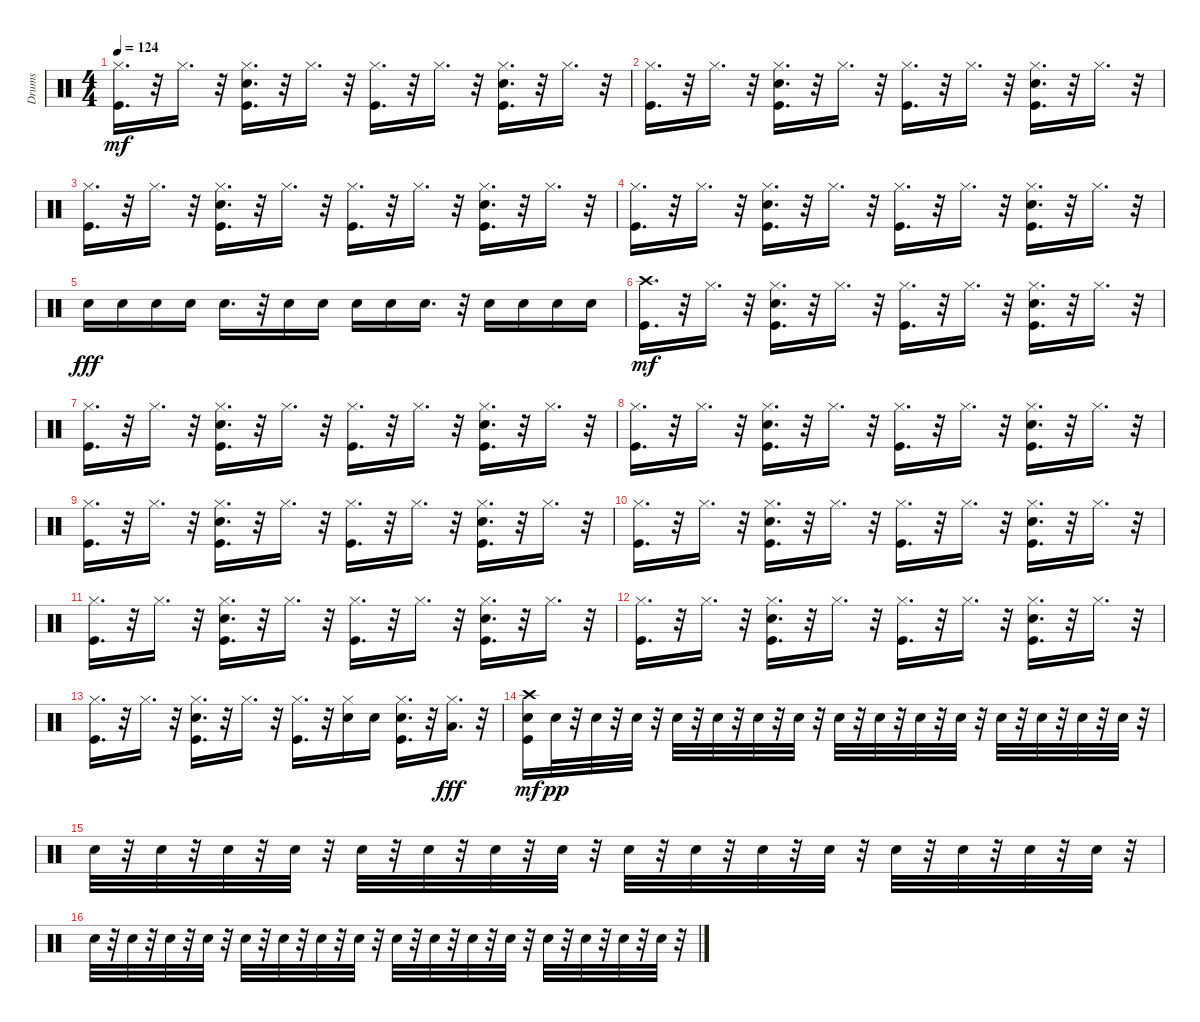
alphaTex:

\track ("Drums" "Drums") {instrument percussion}
\staff {score}
\articulation defaults
\ts (4 4)
\tempo 124
\clef neutral
\ks c
("Kick (hit)" "Hi-Hat (closed)").16{d dy mf} r.32 "Hi-Hat (closed)".16{d} r.32 ("Kick (hit)" "Snare (hit) 2" "Hi-Hat (closed)").16{d} r.32 "Hi-Hat (closed)".16{d} r.32 ("Kick (hit)" "Hi-Hat (closed)").16{d} r.32 "Hi-Hat (closed)".16{d} r.32 ("Kick (hit)" "Snare (hit) 2" "Hi-Hat (closed)").16{d} r.32 "Hi-Hat (closed)".16{d} r.32 |
("Kick (hit)" "Hi-Hat (closed)").16{d} r.32 "Hi-Hat (closed)".16{d} r.32 ("Kick (hit)" "Snare (hit) 2" "Hi-Hat (closed)").16{d} r.32 "Hi-Hat (closed)".16{d} r.32 ("Kick (hit)" "Hi-Hat (closed)").16{d} r.32 "Hi-Hat (closed)".16{d} r.32 ("Kick (hit)" "Snare (hit) 2" "Hi-Hat (closed)").16{d} r.32 "Hi-Hat (closed)".16{d} r.32 |
("Kick (hit)" "Hi-Hat (closed)").16{d} r.32 "Hi-Hat (closed)".16{d} r.32 ("Kick (hit)" "Snare (hit) 2" "Hi-Hat (closed)").16{d} r.32 "Hi-Hat (closed)".16{d} r.32 ("Kick (hit)" "Hi-Hat (closed)").16{d} r.32 "Hi-Hat (closed)".16{d} r.32 ("Kick (hit)" "Snare (hit) 2" "Hi-Hat (closed)").16{d} r.32 "Hi-Hat (closed)".16{d} r.32 |
("Kick (hit)" "Hi-Hat (closed)").16{d} r.32 "Hi-Hat (closed)".16{d} r.32 ("Kick (hit)" "Snare (hit) 2" "Hi-Hat (closed)").16{d} r.32 "Hi-Hat (closed)".16{d} r.32 ("Kick (hit)" "Hi-Hat (closed)").16{d} r.32 "Hi-Hat (closed)".16{d} r.32 ("Kick (hit)" "Snare (hit) 2" "Hi-Hat (closed)").16{d} r.32 "Hi-Hat (closed)".16{d} r.32 |
"Snare (hit) 2".16{dy fff} "Snare (hit) 2".16 "Snare (hit) 2".16 "Snare (hit) 2".16 "Snare (hit) 2".16{d} r.32 "Snare (hit) 2".16 "Snare (hit) 2".16 "Snare (hit) 2".16 "Snare (hit) 2".16 "Snare (hit) 2".16{d} r.32 "Snare (hit) 2".16 "Snare (hit) 2".16 "Snare (hit) 2".16 "Snare (hit) 2".16 |
("Kick (hit)" "Crash high (hit)").16{d dy mf} r.32 "Hi-Hat (closed)".16{d} r.32 ("Kick (hit)" "Snare (hit) 2" "Hi-Hat (closed)").16{d} r.32 "Hi-Hat (closed)".16{d} r.32 ("Kick (hit)" "Hi-Hat (closed)").16{d} r.32 "Hi-Hat (closed)".16{d} r.32 ("Kick (hit)" "Snare (hit) 2" "Hi-Hat (closed)").16{d} r.32 "Hi-Hat (closed)".16{d} r.32 |
("Kick (hit)" "Hi-Hat (closed)").16{d} r.32 "Hi-Hat (closed)".16{d} r.32 ("Kick (hit)" "Snare (hit) 2" "Hi-Hat (closed)").16{d} r.32 "Hi-Hat (closed)".16{d} r.32 ("Kick (hit)" "Hi-Hat (closed)").16{d} r.32 "Hi-Hat (closed)".16{d} r.32 ("Kick (hit)" "Snare (hit) 2" "Hi-Hat (closed)").16{d} r.32 "Hi-Hat (closed)".16{d} r.32 |
("Kick (hit)" "Hi-Hat (closed)").16{d} r.32 "Hi-Hat (closed)".16{d} r.32 ("Kick (hit)" "Snare (hit) 2" "Hi-Hat (closed)").16{d} r.32 "Hi-Hat (closed)".16{d} r.32 ("Kick (hit)" "Hi-Hat (closed)").16{d} r.32 "Hi-Hat (closed)".16{d} r.32 ("Kick (hit)" "Snare (hit) 2" "Hi-Hat (closed)").16{d} r.32 "Hi-Hat (closed)".16{d} r.32 |
("Kick (hit)" "Hi-Hat (closed)").16{d} r.32 "Hi-Hat (closed)".16{d} r.32 ("Kick (hit)" "Snare (hit) 2" "Hi-Hat (closed)").16{d} r.32 "Hi-Hat (closed)".16{d} r.32 ("Kick (hit)" "Hi-Hat (closed)").16{d} r.32 "Hi-Hat (closed)".16{d} r.32 ("Kick (hit)" "Snare (hit) 2" "Hi-Hat (closed)").16{d} r.32 "Hi-Hat (closed)".16{d} r.32 |
("Kick (hit)" "Hi-Hat (closed)").16{d} r.32 "Hi-Hat (closed)".16{d} r.32 ("Kick (hit)" "Snare (hit) 2" "Hi-Hat (closed)").16{d} r.32 "Hi-Hat (closed)".16{d} r.32 ("Kick (hit)" "Hi-Hat (closed)").16{d} r.32 "Hi-Hat (closed)".16{d} r.32 ("Kick (hit)" "Snare (hit) 2" "Hi-Hat (closed)").16{d} r.32 "Hi-Hat (closed)".16{d} r.32 |
("Kick (hit)" "Hi-Hat (closed)").16{d} r.32 "Hi-Hat (closed)".16{d} r.32 ("Kick (hit)" "Snare (hit) 2" "Hi-Hat (closed)").16{d} r.32 "Hi-Hat (closed)".16{d} r.32 ("Kick (hit)" "Hi-Hat (closed)").16{d} r.32 "Hi-Hat (closed)".16{d} r.32 ("Kick (hit)" "Snare (hit) 2" "Hi-Hat (closed)").16{d} r.32 "Hi-Hat (closed)".16{d} r.32 |
("Kick (hit)" "Hi-Hat (closed)").16{d} r.32 "Hi-Hat (closed)".16{d} r.32 ("Kick (hit)" "Snare (hit) 2" "Hi-Hat (closed)").16{d} r.32 "Hi-Hat (closed)".16{d} r.32 ("Kick (hit)" "Hi-Hat (closed)").16{d} r.32 "Hi-Hat (closed)".16{d} r.32 ("Kick (hit)" "Snare (hit) 2" "Hi-Hat (closed)").16{d} r.32 "Hi-Hat (closed)".16{d} r.32 |
("Kick (hit)" "Hi-Hat (closed)").16{d} r.32 "Hi-Hat (closed)".16{d} r.32 ("Kick (hit)" "Snare (hit) 2" "Hi-Hat (closed)").16{d} r.32 "Hi-Hat (closed)".16{d} r.32 ("Kick (hit)" "Hi-Hat (closed)").16{d} r.32 ("Snare (hit) 2" "Hi-Hat (closed)").16 "Snare (hit) 2".16 ("Kick (hit)" "Snare (hit) 2" "Hi-Hat (closed)").16{d} r.32 ("Hi-Hat (closed)" "Low Tom (hit)").16{d dy fff} r.32 |
("Kick (hit)" "Snare (hit) 2" "Crash high (hit)").16{dy mf} "Snare (hit) 2".32{dy pp} r.32 "Snare (hit) 2".32 r.32 "Snare (hit) 2".32 r.32 "Snare (hit) 2".32 r.32 "Snare (hit) 2".32 r.32 "Snare (hit) 2".32 r.32 "Snare (hit) 2".32 r.32 "Snare (hit) 2".32 r.32 "Snare (hit) 2".32 r.32 "Snare (hit) 2".32 r.32 "Snare (hit) 2".32 r.32 "Snare (hit) 2".32 r.32 "Snare (hit) 2".32 r.32 "Snare (hit) 2".32 r.32 "Snare (hit) 2".32 r.32 |
"Snare (hit) 2".32 r.32 "Snare (hit) 2".32 r.32 "Snare (hit) 2".32 r.32 "Snare (hit) 2".32 r.32 "Snare (hit) 2".32 r.32 "Snare (hit) 2".32 r.32 "Snare (hit) 2".32 r.32 "Snare (hit) 2".32 r.32 "Snare (hit) 2".32 r.32 "Snare (hit) 2".32 r.32 "Snare (hit) 2".32 r.32 "Snare (hit) 2".32 r.32 "Snare (hit) 2".32 r.32 "Snare (hit) 2".32 r.32 "Snare (hit) 2".32 r.32 "Snare (hit) 2".32 r.32 |
"Snare (hit) 2".32 r.32 "Snare (hit) 2".32 r.32 "Snare (hit) 2".32 r.32 "Snare (hit) 2".32 r.32 "Snare (hit) 2".32 r.32 "Snare (hit) 2".32 r.32 "Snare (hit) 2".32 r.32 "Snare (hit) 2".32 r.32 "Snare (hit) 2".32 r.32 "Snare (hit) 2".32 r.32 "Snare (hit) 2".32 r.32 "Snare (hit) 2".32 r.32 "Snare (hit) 2".32 r.32 "Snare (hit) 2".32 r.32 "Snare (hit) 2".32 r.32 "Snare (hit) 2".32 r.32
